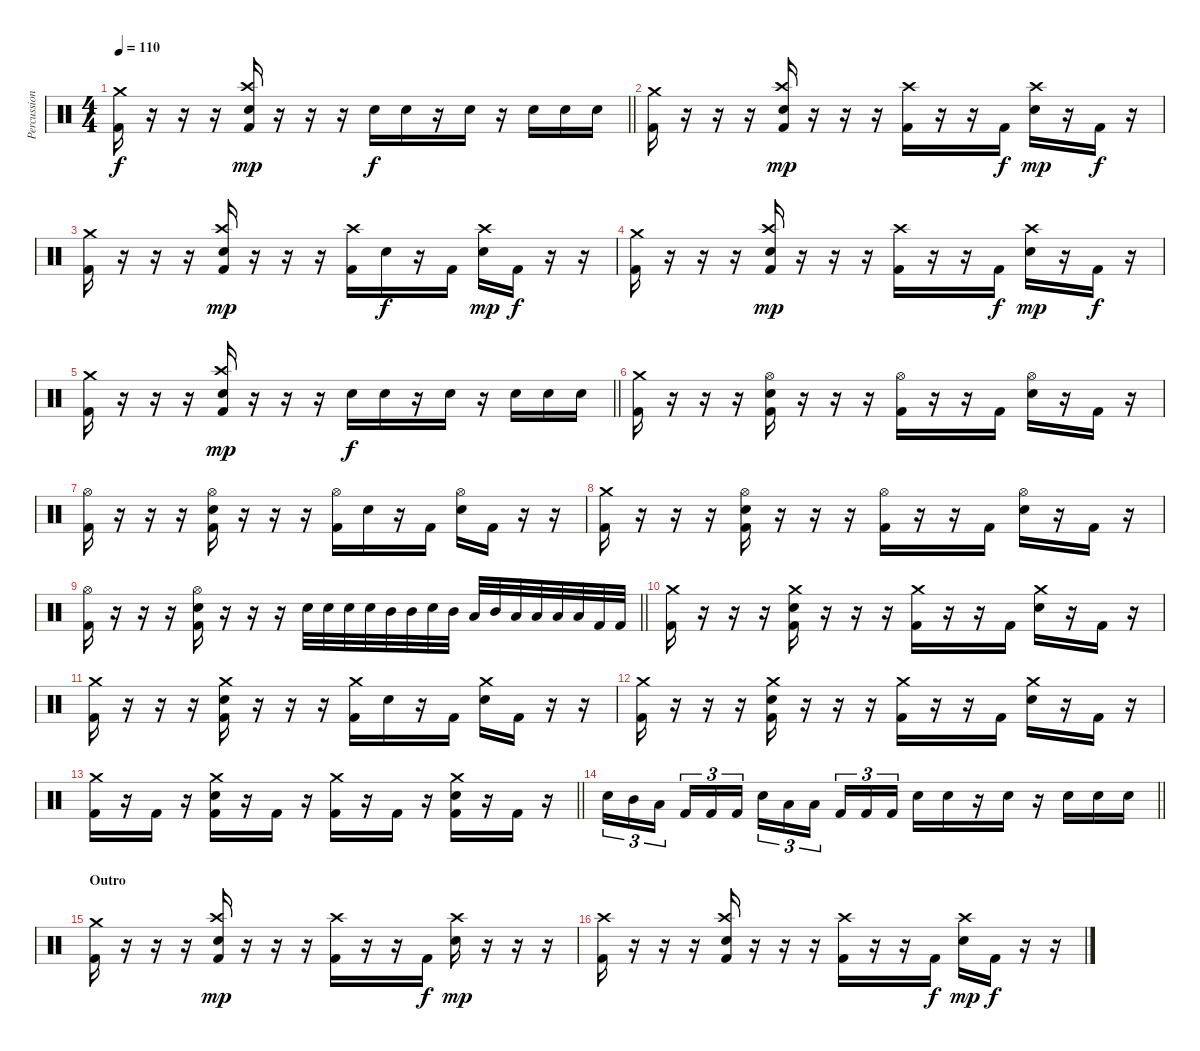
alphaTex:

\track ("Percussion" "Percussion") {instrument percussion}
\staff {score}
\articulation defaults
\ts (4 4)
\tempo 110
\clef neutral
\barLineRight lightlight
\ks c
("Crash medium (hit)" "Kick (hit) 2").16{dy f} r.16 r.16 r.16 ("Crash high (hit)" "Electric Snare (hit)" "Kick (hit) 2").16{dy mp} r.16 r.16 r.16 "Electric Snare (hit)".16{dy f} "Electric Snare (hit)".16 r.16 "Electric Snare (hit)".16 r.16 "Electric Snare (hit)".16 "Electric Snare (hit)".16 "Electric Snare (hit)".16 |
("Crash medium (hit)" "Kick (hit) 2").16 r.16 r.16 r.16 ("Crash high (hit)" "Electric Snare (hit)" "Kick (hit) 2").16{dy mp} r.16 r.16 r.16 ("Crash high (hit)" "Kick (hit) 2").16 r.16 r.16 "Kick (hit) 2".16{dy f} ("Crash high (hit)" "Electric Snare (hit)").16{dy mp} r.16 "Kick (hit) 2".16{dy f} r.16 |
("Crash medium (hit)" "Kick (hit) 2").16 r.16 r.16 r.16 ("Crash high (hit)" "Electric Snare (hit)" "Kick (hit) 2").16{dy mp} r.16 r.16 r.16 ("Crash high (hit)" "Kick (hit) 2").16 "Electric Snare (hit)".16{dy f} r.16 "Kick (hit) 2".16 ("Crash high (hit)" "Electric Snare (hit)").16{dy mp} "Kick (hit) 2".16{dy f} r.16 r.16 |
("Crash medium (hit)" "Kick (hit) 2").16 r.16 r.16 r.16 ("Crash high (hit)" "Electric Snare (hit)" "Kick (hit) 2").16{dy mp} r.16 r.16 r.16 ("Crash high (hit)" "Kick (hit) 2").16 r.16 r.16 "Kick (hit) 2".16{dy f} ("Crash high (hit)" "Electric Snare (hit)").16{dy mp} r.16 "Kick (hit) 2".16{dy f} r.16 |
\barLineRight lightlight
("Crash medium (hit)" "Kick (hit) 2").16 r.16 r.16 r.16 ("Crash high (hit)" "Electric Snare (hit)" "Kick (hit) 2").16{dy mp} r.16 r.16 r.16 "Electric Snare (hit)".16{dy f} "Electric Snare (hit)".16 r.16 "Electric Snare (hit)".16 r.16 "Electric Snare (hit)".16 "Electric Snare (hit)".16 "Electric Snare (hit)".16 |
("Crash medium (hit)" "Kick (hit) 2").16 r.16 r.16 r.16 ("Hi-Hat (open)" "Electric Snare (hit)" "Kick (hit) 2").16 r.16 r.16 r.16 ("Hi-Hat (open)" "Kick (hit) 2").16 r.16 r.16 "Kick (hit) 2".16 ("Hi-Hat (open)" "Electric Snare (hit)").16 r.16 "Kick (hit) 2".16 r.16 |
("Hi-Hat (open)" "Kick (hit) 2").16 r.16 r.16 r.16 ("Hi-Hat (open)" "Electric Snare (hit)" "Kick (hit) 2").16 r.16 r.16 r.16 ("Hi-Hat (open)" "Kick (hit) 2").16 "Electric Snare (hit)".16 r.16 "Kick (hit) 2".16 ("Hi-Hat (open)" "Electric Snare (hit)").16 "Kick (hit) 2".16 r.16 r.16 |
("Crash medium (hit)" "Kick (hit) 2").16 r.16 r.16 r.16 ("Hi-Hat (open)" "Electric Snare (hit)" "Kick (hit) 2").16 r.16 r.16 r.16 ("Hi-Hat (open)" "Kick (hit) 2").16 r.16 r.16 "Kick (hit) 2".16 ("Hi-Hat (open)" "Electric Snare (hit)").16 r.16 "Kick (hit) 2".16 r.16 |
\barLineRight lightlight
("Hi-Hat (open)" "Kick (hit) 2").16 r.16 r.16 r.16 ("Hi-Hat (open)" "Electric Snare (hit)" "Kick (hit) 2").16 r.16 r.16 r.16 "Electric Snare (hit)".32 "Electric Snare (hit)".32 "Electric Snare (hit)".32 "Electric Snare (hit)".32 "Mid Tom (hit)".32 "Mid Tom (hit)".32 "Electric Snare (hit)".32 "Mid Tom (hit)".32 "Low Tom (hit)".32 "Mid Tom (hit)".32 "Low Tom (hit)".32 "Low Tom (hit)".32 "Low Floor Tom (hit)".32 "Low Floor Tom (hit)".32 "Kick (hit) 2".32 "Kick (hit) 2".32 |
("Crash medium (hit)" "Kick (hit) 2").16 r.16 r.16 r.16 ("Crash medium (hit)" "Electric Snare (hit)" "Kick (hit) 2").16 r.16 r.16 r.16 ("Crash medium (hit)" "Kick (hit) 2").16 r.16 r.16 "Kick (hit) 2".16 ("Crash medium (hit)" "Electric Snare (hit)").16 r.16 "Kick (hit) 2".16 r.16 |
("Crash medium (hit)" "Kick (hit) 2").16 r.16 r.16 r.16 ("Crash medium (hit)" "Electric Snare (hit)" "Kick (hit) 2").16 r.16 r.16 r.16 ("Crash medium (hit)" "Kick (hit) 2").16 "Electric Snare (hit)".16 r.16 "Kick (hit) 2".16 ("Crash medium (hit)" "Electric Snare (hit)").16 "Kick (hit) 2".16 r.16 r.16 |
("Crash medium (hit)" "Kick (hit) 2").16 r.16 r.16 r.16 ("Crash medium (hit)" "Electric Snare (hit)" "Kick (hit) 2").16 r.16 r.16 r.16 ("Crash medium (hit)" "Kick (hit) 2").16 r.16 r.16 "Kick (hit) 2".16 ("Crash medium (hit)" "Electric Snare (hit)").16 r.16 "Kick (hit) 2".16 r.16 |
\barLineRight lightlight
("Crash medium (hit)" "Kick (hit) 2").16 r.16 "Kick (hit) 2".16 r.16 ("Crash medium (hit)" "Electric Snare (hit)" "Kick (hit) 2").16 r.16 "Kick (hit) 2".16 r.16 ("Crash medium (hit)" "Kick (hit) 2").16 r.16 "Kick (hit) 2".16 r.16 ("Crash medium (hit)" "Electric Snare (hit)" "Kick (hit) 2").16 r.16 "Kick (hit) 2".16 r.16 |
\barLineRight lightlight "Electric Snare (hit)".16{tu (3 2)} "Mid Tom (hit)".16{tu (3 2)} "Low Tom (hit)".16{tu (3 2) beam splitsecondary} "Kick (hit) 2".16{tu (3 2)} "Kick (hit) 2".16{tu (3 2)} "Kick (hit) 2".16{tu (3 2)} "Electric Snare (hit)".16{tu (3 2)} "Low Tom (hit)".16{tu (3 2)} "Low Floor Tom (hit)".16{tu (3 2) beam splitsecondary} "Kick (hit) 2".16{tu (3 2)} "Kick (hit) 2".16{tu (3 2)} "Kick (hit) 2".16{tu (3 2)} "Electric Snare (hit)".16 "Electric Snare (hit)".16
r.16 "Electric Snare (hit)".16 r.16 "Electric Snare (hit)".16 "Electric Snare (hit)".16 "Electric Snare (hit)".16 |
\section ("" "Outro")
("Crash medium (hit)" "Kick (hit) 2").16 r.16 r.16 r.16 ("Crash high (hit)" "Electric Snare (hit)" "Kick (hit) 2").16{dy mp} r.16 r.16 r.16 ("Crash high (hit)" "Kick (hit) 2").16 r.16 r.16 "Kick (hit) 2".16{dy f} ("Crash high (hit)" "Electric Snare (hit)").16{dy mp} r.16 r.16 r.16 |
("Crash high (hit)" "Kick (hit) 2").16 r.16 r.16 r.16 ("Crash high (hit)" "Electric Snare (hit)" "Kick (hit) 2").16 r.16 r.16 r.16 ("Crash high (hit)" "Kick (hit) 2").16 r.16 r.16 "Kick (hit) 2".16{dy f} ("Crash high (hit)" "Electric Snare (hit)").16{dy mp} "Kick (hit) 2".16{dy f} r.16 r.16
